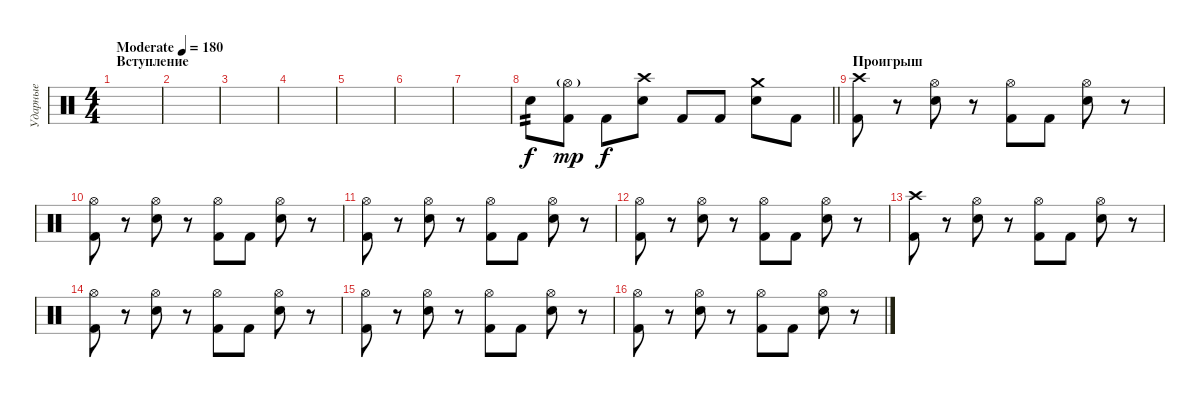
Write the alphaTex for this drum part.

\track ("Ударные" "Ударные") {instrument percussion}
\staff {score}
\articulation defaults
\ts (4 4)
\section ("" "Вступление")
\tempo (180 "Moderate")
\clef neutral
\ks c
|
|
|
|
|
|
|
\barLineRight lightlight "Electric Snare (hit)".8{tp 2}
("Hi-Hat (open)"{g} "Kick (hit) 2").8{dy mp} "Kick (hit) 2".8{dy f} ("Crash high (hit)" "Electric Snare (hit)").8 "Kick (hit) 2".8 "Kick (hit) 2".8 ("Crash medium (hit)" "Electric Snare (hit)").8 "Kick (hit) 2".8 |
\section ("" "Проигрыш")
("Crash high (hit)" "Kick (hit) 2").8 r.8 ("Hi-Hat (open)" "Electric Snare (hit)").8 r.8 ("Hi-Hat (open)" "Kick (hit) 2").8 "Kick (hit) 2".8 ("Hi-Hat (open)" "Electric Snare (hit)").8 r.8 |
("Hi-Hat (open)" "Kick (hit) 2").8 r.8 ("Hi-Hat (open)" "Electric Snare (hit)").8 r.8 ("Hi-Hat (open)" "Kick (hit) 2").8 "Kick (hit) 2".8 ("Hi-Hat (open)" "Electric Snare (hit)").8 r.8 |
("Hi-Hat (open)" "Kick (hit) 2").8 r.8 ("Hi-Hat (open)" "Electric Snare (hit)").8 r.8 ("Hi-Hat (open)" "Kick (hit) 2").8 "Kick (hit) 2".8 ("Hi-Hat (open)" "Electric Snare (hit)").8 r.8 |
("Hi-Hat (open)" "Kick (hit) 2").8 r.8 ("Hi-Hat (open)" "Electric Snare (hit)").8 r.8 ("Hi-Hat (open)" "Kick (hit) 2").8 "Kick (hit) 2".8 ("Hi-Hat (open)" "Electric Snare (hit)").8 r.8 |
("Crash high (hit)" "Kick (hit) 2").8 r.8 ("Hi-Hat (open)" "Electric Snare (hit)").8 r.8 ("Hi-Hat (open)" "Kick (hit) 2").8 "Kick (hit) 2".8 ("Hi-Hat (open)" "Electric Snare (hit)").8 r.8 |
("Hi-Hat (open)" "Kick (hit) 2").8 r.8 ("Hi-Hat (open)" "Electric Snare (hit)").8 r.8 ("Hi-Hat (open)" "Kick (hit) 2").8 "Kick (hit) 2".8 ("Hi-Hat (open)" "Electric Snare (hit)").8 r.8 |
("Hi-Hat (open)" "Kick (hit) 2").8 r.8 ("Hi-Hat (open)" "Electric Snare (hit)").8 r.8 ("Hi-Hat (open)" "Kick (hit) 2").8 "Kick (hit) 2".8 ("Hi-Hat (open)" "Electric Snare (hit)").8 r.8 |
("Hi-Hat (open)" "Kick (hit) 2").8 r.8 ("Hi-Hat (open)" "Electric Snare (hit)").8 r.8 ("Hi-Hat (open)" "Kick (hit) 2").8 "Kick (hit) 2".8 ("Hi-Hat (open)" "Electric Snare (hit)").8 r.8
